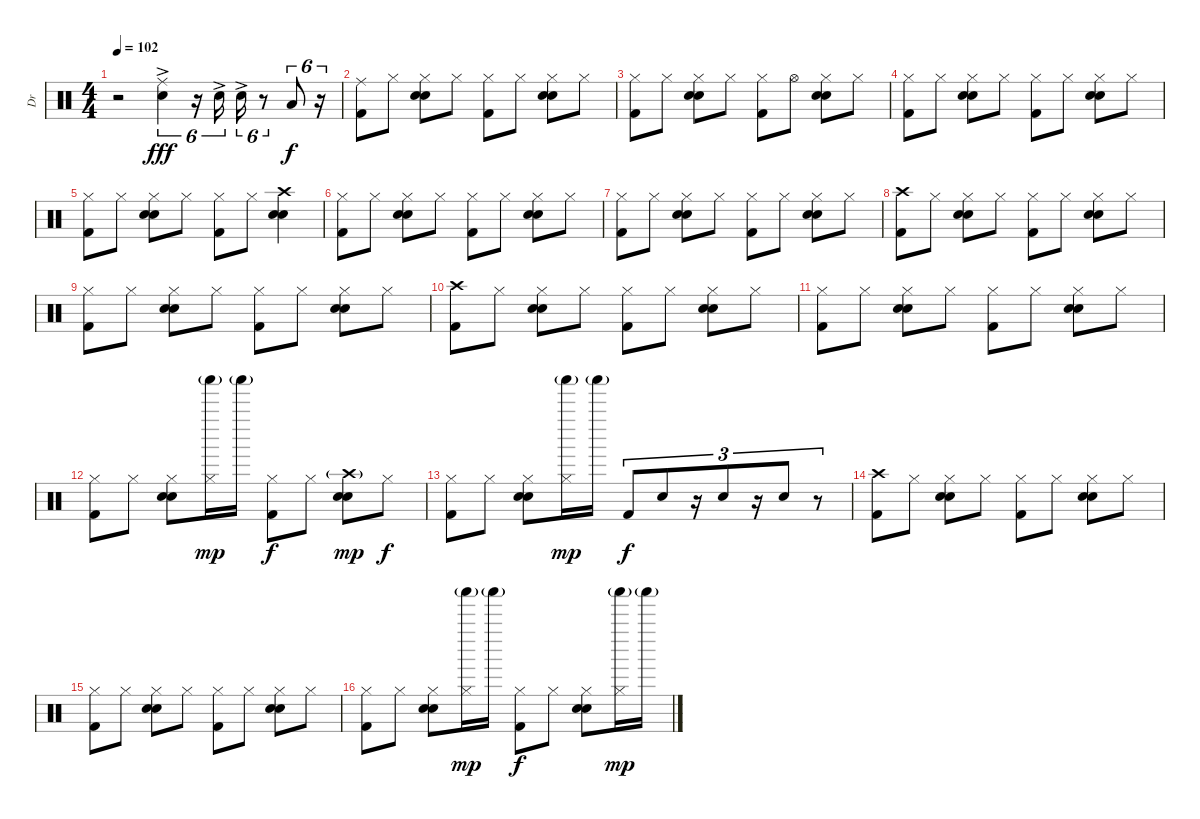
\track ("Dr" "Dr") {instrument percussion}
\staff {score}
\articulation defaults
\ts (4 4)
\tempo 102
\clef neutral
\ks c
r.2{dy fff} ("Ride (middle)" "Electric Snare (hit)"{ac}).4{tu (6 4)} r.16{tu (6 4)} "Electric Snare (hit)"{ac}.16{tu (6 4)} "Electric Snare (hit)"{ac}.16{tu (6 4)} r.8{tu (6 4)} "Low Tom (hit)".8{tu (6 4) dy f} r.16{tu (6 4)} |
("Ride (middle)" "Kick (hit) 2").8 "Hi-Hat (closed)".8 ("Hi-Hat (closed)" "Electric Snare (hit)" "Hand Clap (hit)").8 "Hi-Hat (closed)".8 ("Hi-Hat (closed)" "Kick (hit) 2").8 "Hi-Hat (closed)".8 ("Hi-Hat (closed)" "Electric Snare (hit)" "Hand Clap (hit)").8 "Hi-Hat (closed)".8 |
("Hi-Hat (closed)" "Kick (hit) 2").8 "Hi-Hat (closed)".8 ("Hi-Hat (closed)" "Electric Snare (hit)" "Hand Clap (hit)").8 "Hi-Hat (closed)".8 ("Hi-Hat (closed)" "Kick (hit) 2").8 "Hi-Hat (open)".8 ("Hi-Hat (closed)" "Electric Snare (hit)" "Hand Clap (hit)").8 "Hi-Hat (closed)".8 |
("Hi-Hat (closed)" "Kick (hit) 2").8 "Hi-Hat (closed)".8 ("Hi-Hat (closed)" "Electric Snare (hit)" "Hand Clap (hit)").8 "Hi-Hat (closed)".8 ("Hi-Hat (closed)" "Kick (hit) 2").8 "Hi-Hat (closed)".8 ("Hi-Hat (closed)" "Electric Snare (hit)" "Hand Clap (hit)").8 "Hi-Hat (closed)".8 |
("Hi-Hat (closed)" "Kick (hit) 2").8 "Hi-Hat (closed)".8 ("Hi-Hat (closed)" "Electric Snare (hit)" "Hand Clap (hit)").8 "Hi-Hat (closed)".8 ("Hi-Hat (closed)" "Kick (hit) 2").8 "Hi-Hat (closed)".8 ("Crash high (hit)" "Electric Snare (hit)" "Hand Clap (hit)").4 |
("Hi-Hat (closed)" "Kick (hit) 2").8 "Hi-Hat (closed)".8 ("Hi-Hat (closed)" "Electric Snare (hit)" "Hand Clap (hit)").8 "Hi-Hat (closed)".8 ("Hi-Hat (closed)" "Kick (hit) 2").8 "Hi-Hat (closed)".8 ("Hi-Hat (closed)" "Electric Snare (hit)" "Hand Clap (hit)").8 "Hi-Hat (closed)".8 |
("Hi-Hat (closed)" "Kick (hit) 2").8 "Hi-Hat (closed)".8 ("Hi-Hat (closed)" "Electric Snare (hit)" "Hand Clap (hit)").8 "Hi-Hat (closed)".8 ("Hi-Hat (closed)" "Kick (hit) 2").8 "Hi-Hat (closed)".8 ("Hi-Hat (closed)" "Electric Snare (hit)" "Hand Clap (hit)").8 "Hi-Hat (closed)".8 |
("Crash high (hit)" "Kick (hit) 2").8 "Hi-Hat (closed)".8 ("Hi-Hat (closed)" "Electric Snare (hit)" "Hand Clap (hit)").8 "Hi-Hat (closed)".8 ("Hi-Hat (closed)" "Kick (hit) 2").8 "Hi-Hat (closed)".8 ("Hi-Hat (closed)" "Electric Snare (hit)" "Hand Clap (hit)").8 "Hi-Hat (closed)".8 |
("Hi-Hat (closed)" "Kick (hit) 2").8 "Hi-Hat (closed)".8 ("Hi-Hat (closed)" "Electric Snare (hit)" "Hand Clap (hit)").8 "Hi-Hat (closed)".8 ("Hi-Hat (closed)" "Kick (hit) 2").8 "Hi-Hat (closed)".8 ("Hi-Hat (closed)" "Electric Snare (hit)" "Hand Clap (hit)").8 "Hi-Hat (closed)".8 |
("Crash high (hit)" "Kick (hit) 2").8 "Hi-Hat (closed)".8 ("Hi-Hat (closed)" "Electric Snare (hit)" "Hand Clap (hit)").8 "Hi-Hat (closed)".8 ("Hi-Hat (closed)" "Kick (hit) 2").8 "Hi-Hat (closed)".8 ("Hi-Hat (closed)" "Electric Snare (hit)" "Hand Clap (hit)").8 "Hi-Hat (closed)".8 |
("Hi-Hat (closed)" "Kick (hit) 2").8 "Hi-Hat (closed)".8 ("Hi-Hat (closed)" "Electric Snare (hit)" "Hand Clap (hit)").8 "Hi-Hat (closed)".8 ("Hi-Hat (closed)" "Kick (hit) 2").8 "Hi-Hat (closed)".8 ("Hi-Hat (closed)" "Electric Snare (hit)" "Hand Clap (hit)").8 "Hi-Hat (closed)".8 |
("Hi-Hat (closed)" "Kick (hit) 2").8 "Hi-Hat (closed)".8 ("Hi-Hat (closed)" "Electric Snare (hit)" "Hand Clap (hit)").8 ("Hi-Hat (closed)" "Shaker (hit)"{g}).16{dy mp} "Shaker (hit)"{g}.16 ("Hi-Hat (closed)" "Kick (hit) 2").8{dy f} "Hi-Hat (closed)".8 ("Crash high (hit)"{g} "Electric Snare (hit)" "Hand Clap (hit)").8{dy mp} "Hi-Hat (closed)".8{dy f} |
("Hi-Hat (closed)" "Kick (hit) 2").8 "Hi-Hat (closed)".8 ("Hi-Hat (closed)" "Electric Snare (hit)" "Hand Clap (hit)").8 ("Hi-Hat (closed)" "Shaker (hit)"{g}).16{dy mp} "Shaker (hit)"{g}.16 "Kick (hit) 2".8{tu (3 2) dy f} "Electric Snare (hit)".8{tu (3 2)} r.16{tu (3 2)} "Electric Snare (hit)".8{tu (3 2)} r.16{tu (3 2)} "Electric Snare (hit)".8{tu (3 2)} r.8{tu (3 2)} |
("Crash high (hit)" "Kick (hit) 2").8 "Hi-Hat (closed)".8 ("Hi-Hat (closed)" "Electric Snare (hit)" "Hand Clap (hit)").8 "Hi-Hat (closed)".8 ("Hi-Hat (closed)" "Kick (hit) 2").8 "Hi-Hat (closed)".8 ("Hi-Hat (closed)" "Electric Snare (hit)" "Hand Clap (hit)").8 "Hi-Hat (closed)".8 |
("Hi-Hat (closed)" "Kick (hit) 2").8 "Hi-Hat (closed)".8 ("Hi-Hat (closed)" "Electric Snare (hit)" "Hand Clap (hit)").8 "Hi-Hat (closed)".8 ("Hi-Hat (closed)" "Kick (hit) 2").8 "Hi-Hat (closed)".8 ("Hi-Hat (closed)" "Electric Snare (hit)" "Hand Clap (hit)").8 "Hi-Hat (closed)".8 |
("Hi-Hat (closed)" "Kick (hit) 2").8 "Hi-Hat (closed)".8 ("Hi-Hat (closed)" "Electric Snare (hit)" "Hand Clap (hit)").8 ("Hi-Hat (closed)" "Shaker (hit)"{g}).16{dy mp} "Shaker (hit)"{g}.16 ("Hi-Hat (closed)" "Kick (hit) 2").8{dy f} "Hi-Hat (closed)".8 ("Hi-Hat (closed)" "Electric Snare (hit)" "Hand Clap (hit)").8 ("Hi-Hat (closed)" "Shaker (hit)"{g}).16{dy mp} "Shaker (hit)"{g}.16
